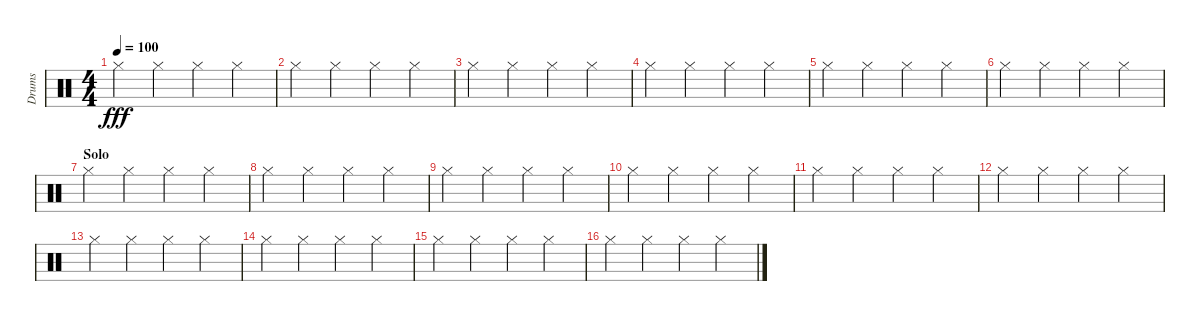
\defaultSystemsLayout 4
\bracketExtendMode groupsimilarinstruments
\otherSystemsTrackNameOrientation horizontal
\track ("Prakarsh" "Drums") {instrument percussion}
\staff {score}
\articulation defaults
\ts (4 4)
\tempo 100
\clef neutral
\ks c "Hi-Hat (closed)".4{dy fff beam Down} "Hi-Hat (closed)".4{beam Down} "Hi-Hat (closed)".4{beam Down} "Hi-Hat (closed)".4{beam Down}
|
"Hi-Hat (closed)".4{beam Down} "Hi-Hat (closed)".4{beam Down} "Hi-Hat (closed)".4{beam Down} "Hi-Hat (closed)".4{beam Down} |
"Hi-Hat (closed)".4{beam Down} "Hi-Hat (closed)".4{beam Down} "Hi-Hat (closed)".4{beam Down} "Hi-Hat (closed)".4{beam Down} |
"Hi-Hat (closed)".4{beam Down} "Hi-Hat (closed)".4{beam Down} "Hi-Hat (closed)".4{beam Down} "Hi-Hat (closed)".4{beam Down} |
"Hi-Hat (closed)".4{beam Down} "Hi-Hat (closed)".4{beam Down} "Hi-Hat (closed)".4{beam Down} "Hi-Hat (closed)".4{beam Down} |
"Hi-Hat (closed)".4{beam Down} "Hi-Hat (closed)".4{beam Down} "Hi-Hat (closed)".4{beam Down} "Hi-Hat (closed)".4{beam Down} |
\section ("" "Solo")
"Hi-Hat (closed)".4{beam Down} "Hi-Hat (closed)".4{beam Down} "Hi-Hat (closed)".4{beam Down} "Hi-Hat (closed)".4{beam Down} |
"Hi-Hat (closed)".4{beam Down} "Hi-Hat (closed)".4{beam Down} "Hi-Hat (closed)".4{beam Down} "Hi-Hat (closed)".4{beam Down} |
"Hi-Hat (closed)".4{beam Down} "Hi-Hat (closed)".4{beam Down} "Hi-Hat (closed)".4{beam Down} "Hi-Hat (closed)".4{beam Down} |
"Hi-Hat (closed)".4{beam Down} "Hi-Hat (closed)".4{beam Down} "Hi-Hat (closed)".4{beam Down} "Hi-Hat (closed)".4{beam Down} |
"Hi-Hat (closed)".4{beam Down} "Hi-Hat (closed)".4{beam Down} "Hi-Hat (closed)".4{beam Down} "Hi-Hat (closed)".4{beam Down} |
"Hi-Hat (closed)".4{beam Down} "Hi-Hat (closed)".4{beam Down} "Hi-Hat (closed)".4{beam Down} "Hi-Hat (closed)".4{beam Down} |
"Hi-Hat (closed)".4{beam Down} "Hi-Hat (closed)".4{beam Down} "Hi-Hat (closed)".4{beam Down} "Hi-Hat (closed)".4{beam Down} |
"Hi-Hat (closed)".4{beam Down} "Hi-Hat (closed)".4{beam Down} "Hi-Hat (closed)".4{beam Down} "Hi-Hat (closed)".4{beam Down} |
"Hi-Hat (closed)".4{beam Down} "Hi-Hat (closed)".4{beam Down} "Hi-Hat (closed)".4{beam Down} "Hi-Hat (closed)".4{beam Down} |
"Hi-Hat (closed)".4{beam Down} "Hi-Hat (closed)".4{beam Down} "Hi-Hat (closed)".4{beam Down} "Hi-Hat (closed)".4{beam Down}
